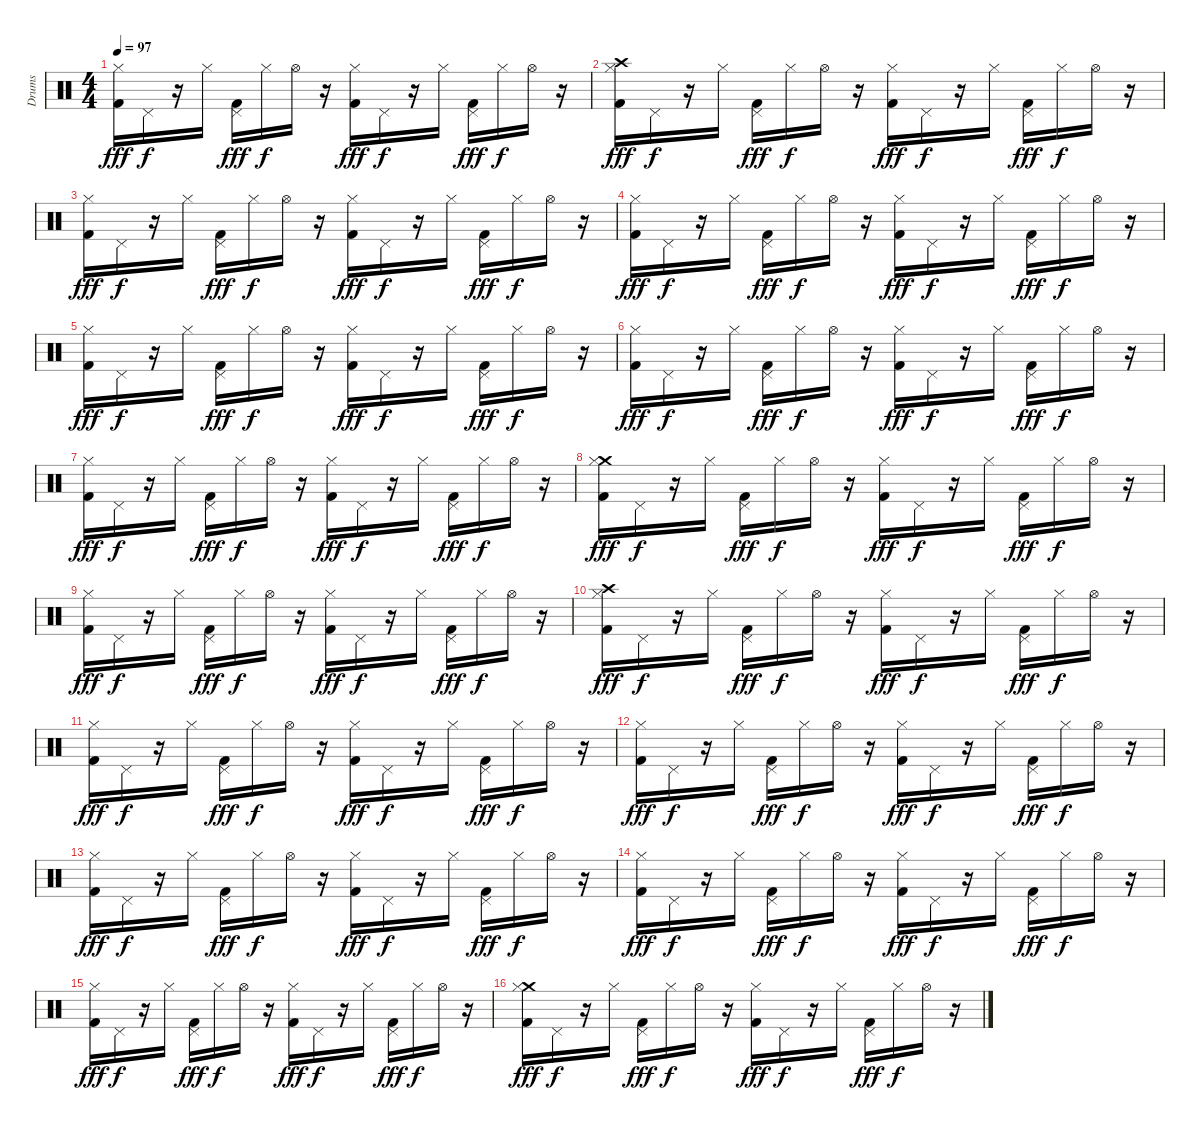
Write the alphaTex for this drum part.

\track ("Drums" "Drums") {instrument percussion}
\staff {score}
\articulation defaults
\ts (4 4)
\tempo 97
\clef neutral
\ks c
("Kick (hit) 2" "Hi-Hat (closed)").16{dy fff} "Pedal Hi-Hat (hit)".16{dy f} r.16 "Hi-Hat (closed)".16 ("Kick (hit) 2" "Pedal Hi-Hat (hit)").16{dy fff} "Hi-Hat (closed)".16{dy f} "Hi-Hat (open)".16 r.16 ("Kick (hit) 2" "Hi-Hat (closed)").16{dy fff} "Pedal Hi-Hat (hit)".16{dy f} r.16 "Hi-Hat (closed)".16 ("Kick (hit) 2" "Pedal Hi-Hat (hit)").16{dy fff} "Hi-Hat (closed)".16{dy f} "Hi-Hat (open)".16 r.16 |
("Crash high (hit)" "Kick (hit) 2" "Hi-Hat (closed)").16{dy fff} "Pedal Hi-Hat (hit)".16{dy f} r.16 "Hi-Hat (closed)".16 ("Kick (hit) 2" "Pedal Hi-Hat (hit)").16{dy fff} "Hi-Hat (closed)".16{dy f} "Hi-Hat (open)".16 r.16 ("Kick (hit) 2" "Hi-Hat (closed)").16{dy fff} "Pedal Hi-Hat (hit)".16{dy f} r.16 "Hi-Hat (closed)".16 ("Kick (hit) 2" "Pedal Hi-Hat (hit)").16{dy fff} "Hi-Hat (closed)".16{dy f} "Hi-Hat (open)".16 r.16 |
("Kick (hit) 2" "Hi-Hat (closed)").16{dy fff} "Pedal Hi-Hat (hit)".16{dy f} r.16 "Hi-Hat (closed)".16 ("Kick (hit) 2" "Pedal Hi-Hat (hit)").16{dy fff} "Hi-Hat (closed)".16{dy f} "Hi-Hat (open)".16 r.16 ("Kick (hit) 2" "Hi-Hat (closed)").16{dy fff} "Pedal Hi-Hat (hit)".16{dy f} r.16 "Hi-Hat (closed)".16 ("Kick (hit) 2" "Pedal Hi-Hat (hit)").16{dy fff} "Hi-Hat (closed)".16{dy f} "Hi-Hat (open)".16 r.16 |
("Kick (hit) 2" "Hi-Hat (closed)").16{dy fff} "Pedal Hi-Hat (hit)".16{dy f} r.16 "Hi-Hat (closed)".16 ("Kick (hit) 2" "Pedal Hi-Hat (hit)").16{dy fff} "Hi-Hat (closed)".16{dy f} "Hi-Hat (open)".16 r.16 ("Kick (hit) 2" "Hi-Hat (closed)").16{dy fff} "Pedal Hi-Hat (hit)".16{dy f} r.16 "Hi-Hat (closed)".16 ("Kick (hit) 2" "Pedal Hi-Hat (hit)").16{dy fff} "Hi-Hat (closed)".16{dy f} "Hi-Hat (open)".16 r.16 |
("Kick (hit) 2" "Hi-Hat (closed)").16{dy fff} "Pedal Hi-Hat (hit)".16{dy f} r.16 "Hi-Hat (closed)".16 ("Kick (hit) 2" "Pedal Hi-Hat (hit)").16{dy fff} "Hi-Hat (closed)".16{dy f} "Hi-Hat (open)".16 r.16 ("Kick (hit) 2" "Hi-Hat (closed)").16{dy fff} "Pedal Hi-Hat (hit)".16{dy f} r.16 "Hi-Hat (closed)".16 ("Kick (hit) 2" "Pedal Hi-Hat (hit)").16{dy fff} "Hi-Hat (closed)".16{dy f} "Hi-Hat (open)".16 r.16 |
("Kick (hit) 2" "Hi-Hat (closed)").16{dy fff} "Pedal Hi-Hat (hit)".16{dy f} r.16 "Hi-Hat (closed)".16 ("Kick (hit) 2" "Pedal Hi-Hat (hit)").16{dy fff} "Hi-Hat (closed)".16{dy f} "Hi-Hat (open)".16 r.16 ("Kick (hit) 2" "Hi-Hat (closed)").16{dy fff} "Pedal Hi-Hat (hit)".16{dy f} r.16 "Hi-Hat (closed)".16 ("Kick (hit) 2" "Pedal Hi-Hat (hit)").16{dy fff} "Hi-Hat (closed)".16{dy f} "Hi-Hat (open)".16 r.16 |
("Kick (hit) 2" "Hi-Hat (closed)").16{dy fff} "Pedal Hi-Hat (hit)".16{dy f} r.16 "Hi-Hat (closed)".16 ("Kick (hit) 2" "Pedal Hi-Hat (hit)").16{dy fff} "Hi-Hat (closed)".16{dy f} "Hi-Hat (open)".16 r.16 ("Kick (hit) 2" "Hi-Hat (closed)").16{dy fff} "Pedal Hi-Hat (hit)".16{dy f} r.16 "Hi-Hat (closed)".16 ("Kick (hit) 2" "Pedal Hi-Hat (hit)").16{dy fff} "Hi-Hat (closed)".16{dy f} "Hi-Hat (open)".16 r.16 |
("Crash medium (hit)" "Kick (hit) 2" "Hi-Hat (closed)").16{dy fff} "Pedal Hi-Hat (hit)".16{dy f} r.16 "Hi-Hat (closed)".16 ("Kick (hit) 2" "Pedal Hi-Hat (hit)").16{dy fff} "Hi-Hat (closed)".16{dy f} "Hi-Hat (open)".16 r.16 ("Kick (hit) 2" "Hi-Hat (closed)").16{dy fff} "Pedal Hi-Hat (hit)".16{dy f} r.16 "Hi-Hat (closed)".16 ("Kick (hit) 2" "Pedal Hi-Hat (hit)").16{dy fff} "Hi-Hat (closed)".16{dy f} "Hi-Hat (open)".16 r.16 |
("Kick (hit) 2" "Hi-Hat (closed)").16{dy fff} "Pedal Hi-Hat (hit)".16{dy f} r.16 "Hi-Hat (closed)".16 ("Kick (hit) 2" "Pedal Hi-Hat (hit)").16{dy fff} "Hi-Hat (closed)".16{dy f} "Hi-Hat (open)".16 r.16 ("Kick (hit) 2" "Hi-Hat (closed)").16{dy fff} "Pedal Hi-Hat (hit)".16{dy f} r.16 "Hi-Hat (closed)".16 ("Kick (hit) 2" "Pedal Hi-Hat (hit)").16{dy fff} "Hi-Hat (closed)".16{dy f} "Hi-Hat (open)".16 r.16 |
("Crash high (hit)" "Kick (hit) 2" "Hi-Hat (closed)").16{dy fff} "Pedal Hi-Hat (hit)".16{dy f} r.16 "Hi-Hat (closed)".16 ("Kick (hit) 2" "Pedal Hi-Hat (hit)").16{dy fff} "Hi-Hat (closed)".16{dy f} "Hi-Hat (open)".16 r.16 ("Kick (hit) 2" "Hi-Hat (closed)").16{dy fff} "Pedal Hi-Hat (hit)".16{dy f} r.16 "Hi-Hat (closed)".16 ("Kick (hit) 2" "Pedal Hi-Hat (hit)").16{dy fff} "Hi-Hat (closed)".16{dy f} "Hi-Hat (open)".16 r.16 |
("Kick (hit) 2" "Hi-Hat (closed)").16{dy fff} "Pedal Hi-Hat (hit)".16{dy f} r.16 "Hi-Hat (closed)".16 ("Kick (hit) 2" "Pedal Hi-Hat (hit)").16{dy fff} "Hi-Hat (closed)".16{dy f} "Hi-Hat (open)".16 r.16 ("Kick (hit) 2" "Hi-Hat (closed)").16{dy fff} "Pedal Hi-Hat (hit)".16{dy f} r.16 "Hi-Hat (closed)".16 ("Kick (hit) 2" "Pedal Hi-Hat (hit)").16{dy fff} "Hi-Hat (closed)".16{dy f} "Hi-Hat (open)".16 r.16 |
("Kick (hit) 2" "Hi-Hat (closed)").16{dy fff} "Pedal Hi-Hat (hit)".16{dy f} r.16 "Hi-Hat (closed)".16 ("Kick (hit) 2" "Pedal Hi-Hat (hit)").16{dy fff} "Hi-Hat (closed)".16{dy f} "Hi-Hat (open)".16 r.16 ("Kick (hit) 2" "Hi-Hat (closed)").16{dy fff} "Pedal Hi-Hat (hit)".16{dy f} r.16 "Hi-Hat (closed)".16 ("Kick (hit) 2" "Pedal Hi-Hat (hit)").16{dy fff} "Hi-Hat (closed)".16{dy f} "Hi-Hat (open)".16 r.16 |
("Kick (hit) 2" "Hi-Hat (closed)").16{dy fff} "Pedal Hi-Hat (hit)".16{dy f} r.16 "Hi-Hat (closed)".16 ("Kick (hit) 2" "Pedal Hi-Hat (hit)").16{dy fff} "Hi-Hat (closed)".16{dy f} "Hi-Hat (open)".16 r.16 ("Kick (hit) 2" "Hi-Hat (closed)").16{dy fff} "Pedal Hi-Hat (hit)".16{dy f} r.16 "Hi-Hat (closed)".16 ("Kick (hit) 2" "Pedal Hi-Hat (hit)").16{dy fff} "Hi-Hat (closed)".16{dy f} "Hi-Hat (open)".16 r.16 |
("Kick (hit) 2" "Hi-Hat (closed)").16{dy fff} "Pedal Hi-Hat (hit)".16{dy f} r.16 "Hi-Hat (closed)".16 ("Kick (hit) 2" "Pedal Hi-Hat (hit)").16{dy fff} "Hi-Hat (closed)".16{dy f} "Hi-Hat (open)".16 r.16 ("Kick (hit) 2" "Hi-Hat (closed)").16{dy fff} "Pedal Hi-Hat (hit)".16{dy f} r.16 "Hi-Hat (closed)".16 ("Kick (hit) 2" "Pedal Hi-Hat (hit)").16{dy fff} "Hi-Hat (closed)".16{dy f} "Hi-Hat (open)".16 r.16 |
("Kick (hit) 2" "Hi-Hat (closed)").16{dy fff} "Pedal Hi-Hat (hit)".16{dy f} r.16 "Hi-Hat (closed)".16 ("Kick (hit) 2" "Pedal Hi-Hat (hit)").16{dy fff} "Hi-Hat (closed)".16{dy f} "Hi-Hat (open)".16 r.16 ("Kick (hit) 2" "Hi-Hat (closed)").16{dy fff} "Pedal Hi-Hat (hit)".16{dy f} r.16 "Hi-Hat (closed)".16 ("Kick (hit) 2" "Pedal Hi-Hat (hit)").16{dy fff} "Hi-Hat (closed)".16{dy f} "Hi-Hat (open)".16 r.16 |
("Crash medium (hit)" "Kick (hit) 2" "Hi-Hat (closed)").16{dy fff} "Pedal Hi-Hat (hit)".16{dy f} r.16 "Hi-Hat (closed)".16 ("Kick (hit) 2" "Pedal Hi-Hat (hit)").16{dy fff} "Hi-Hat (closed)".16{dy f} "Hi-Hat (open)".16 r.16 ("Kick (hit) 2" "Hi-Hat (closed)").16{dy fff} "Pedal Hi-Hat (hit)".16{dy f} r.16 "Hi-Hat (closed)".16 ("Kick (hit) 2" "Pedal Hi-Hat (hit)").16{dy fff} "Hi-Hat (closed)".16{dy f} "Hi-Hat (open)".16 r.16
